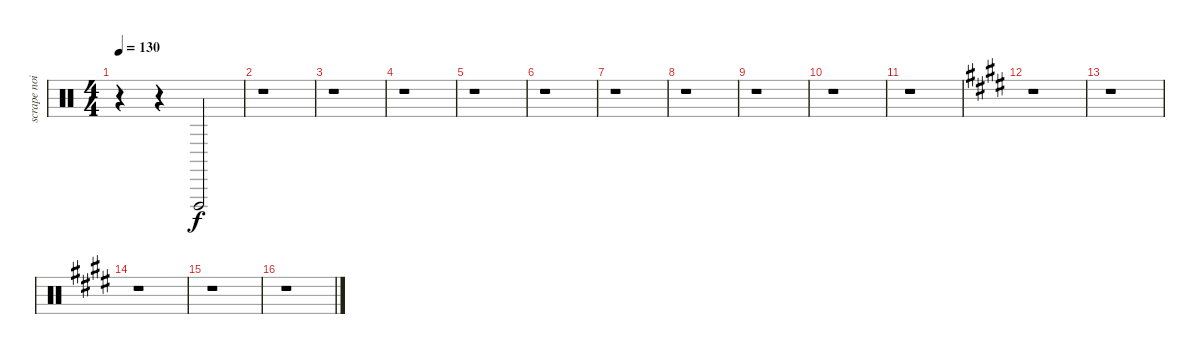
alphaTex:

\track ("scrape noise" "scrape noi") {instrument percussion}
\staff {score}
\articulation defaults
\ts (4 4)
\tempo 130
\clef neutral
\ks c
r.4{dy f} r.4 "Vibraslap (hit)".2 |
r.1 |
r.1 |
r.1 |
r.1 |
r.1 |
r.1 |
r.1 |
r.1 |
r.1 |
r.1 |
\ks c#minor
r.1 |
\ks e
r.1 |
\ks c#minor
r.1 |
\ks e
r.1 |
\ks c#minor
r.1
